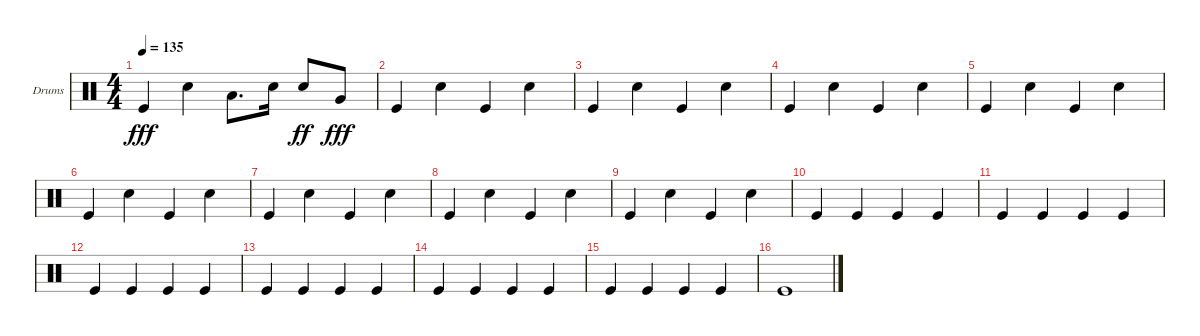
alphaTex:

\defaultSystemsLayout 4
\bracketExtendMode groupsimilarinstruments
\firstSystemTrackNameOrientation horizontal
\otherSystemsTrackNameOrientation horizontal
\track ("Helders" "Drums") {instrument percussion}
\staff {score}
\articulation defaults
\ts (4 4)
\tempo 135
\clef neutral
\ks c "Kick (hit)".4{dy fff} "Snare (hit) 2".4 "Low Tom (hit)".8{d} "Snare (hit) 2".16 "Snare (hit) 2".8{dy ff} "Very Low Tom (hit)".8{dy fff}
|
"Kick (hit)".4 "Snare (hit) 2".4 "Kick (hit)".4 "Snare (hit) 2".4 |
"Kick (hit)".4 "Snare (hit) 2".4 "Kick (hit)".4 "Snare (hit) 2".4 |
"Kick (hit)".4 "Snare (hit) 2".4 "Kick (hit)".4 "Snare (hit) 2".4 |
"Kick (hit)".4 "Snare (hit) 2".4 "Kick (hit)".4 "Snare (hit) 2".4 |
"Kick (hit)".4 "Snare (hit) 2".4 "Kick (hit)".4 "Snare (hit) 2".4 |
"Kick (hit)".4 "Snare (hit) 2".4 "Kick (hit)".4 "Snare (hit) 2".4 |
"Kick (hit)".4 "Snare (hit) 2".4 "Kick (hit)".4 "Snare (hit) 2".4 |
"Kick (hit)".4 "Snare (hit) 2".4 "Kick (hit)".4 "Snare (hit) 2".4 |
"Kick (hit)".4 "Kick (hit)".4 "Kick (hit)".4 "Kick (hit)".4 |
"Kick (hit)".4 "Kick (hit)".4 "Kick (hit)".4 "Kick (hit)".4 |
"Kick (hit)".4 "Kick (hit)".4 "Kick (hit)".4 "Kick (hit)".4 |
"Kick (hit)".4 "Kick (hit)".4 "Kick (hit)".4 "Kick (hit)".4 |
"Kick (hit)".4 "Kick (hit)".4 "Kick (hit)".4 "Kick (hit)".4 |
"Kick (hit)".4 "Kick (hit)".4 "Kick (hit)".4 "Kick (hit)".4 |
"Kick (hit)".1
